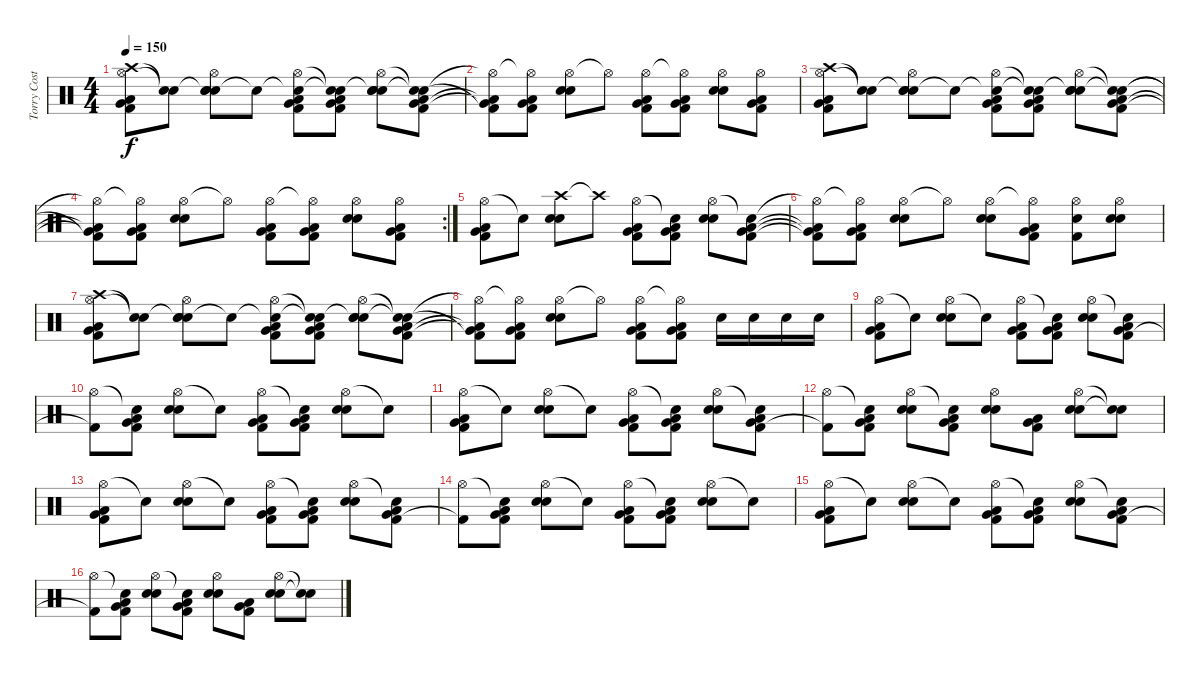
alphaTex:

\track ("Torry Costellano" "Torry Cost") {instrument percussion bank 127}
\staff {score}
\articulation defaults
\ts (4 4)
\tempo 150
\clef neutral
\ks c
("Crash high (hit)" "Hi-Hat (open)" "Kick (hit) 2" "Very Low Tom (hit)" "Low Tom (hit)").8{dy f} ("Snare (hit)"{t} "Snare (hit)"{t}).8 ("Snare (hit)"{t} "Hi-Hat (open)" "Electric Snare (hit)" "Snare (hit) 2").8 "Snare (hit)"{t}.8 ("Snare (hit)"{t} "Hi-Hat (open)" "Kick (hit) 2" "Very Low Tom (hit)" "Low Tom (hit)").8 ("Snare (hit)"{t} "Snare (hit)"{t} "Kick (hit) 2" "Very Low Tom (hit)" "Low Tom (hit)").8 ("Snare (hit)"{t} "Hi-Hat (open)" "Electric Snare (hit)" "Snare (hit) 2").8 ("Snare (hit)"{t} "Snare (hit)"{t} "Kick (hit) 2" "Very Low Tom (hit)" "Low Tom (hit)").8 |
("Hi-Hat (open)"{t} "Kick (hit) 2"{t} "Very Low Tom (hit)"{t} "Low Tom (hit)"{t}).8 ("Hi-Hat (open)"{t} "Low Tom (hit)" "Very Low Tom (hit)" "Kick (hit) 2").8 ("Hi-Hat (open)" "Electric Snare (hit)" "Snare (hit) 2").8 "Hi-Hat (open)"{t}.8 ("Hi-Hat (open)" "Low Tom (hit)" "Very Low Tom (hit)" "Kick (hit) 2").8 ("Hi-Hat (open)"{t} "Low Tom (hit)" "Very Low Tom (hit)" "Kick (hit) 2").8 ("Hi-Hat (open)" "Snare (hit) 2" "Electric Snare (hit)").8 ("Hi-Hat (open)" "Low Tom (hit)" "Very Low Tom (hit)" "Kick (hit) 2").8 |
("Crash high (hit)" "Hi-Hat (open)" "Kick (hit) 2" "Very Low Tom (hit)" "Low Tom (hit)").8 ("Snare (hit)"{t} "Snare (hit)"{t}).8 ("Snare (hit)"{t} "Hi-Hat (open)" "Electric Snare (hit)" "Snare (hit) 2").8 "Snare (hit)"{t}.8 ("Snare (hit)"{t} "Hi-Hat (open)" "Kick (hit) 2" "Very Low Tom (hit)" "Low Tom (hit)").8 ("Snare (hit)"{t} "Snare (hit)"{t} "Kick (hit) 2" "Very Low Tom (hit)" "Low Tom (hit)").8 ("Snare (hit)"{t} "Hi-Hat (open)" "Electric Snare (hit)" "Snare (hit) 2").8 ("Snare (hit)"{t} "Snare (hit)"{t} "Kick (hit) 2" "Very Low Tom (hit)" "Low Tom (hit)").8 |
\rc 2
("Hi-Hat (open)"{t} "Kick (hit) 2"{t} "Very Low Tom (hit)"{t} "Low Tom (hit)"{t}).8 ("Hi-Hat (open)"{t} "Low Tom (hit)" "Very Low Tom (hit)" "Kick (hit) 2").8 ("Hi-Hat (open)" "Electric Snare (hit)" "Snare (hit) 2").8 "Hi-Hat (open)"{t}.8 ("Hi-Hat (open)" "Low Tom (hit)" "Very Low Tom (hit)" "Kick (hit) 2").8 ("Hi-Hat (open)"{t} "Low Tom (hit)" "Very Low Tom (hit)" "Kick (hit) 2").8 ("Hi-Hat (open)" "Snare (hit) 2" "Electric Snare (hit)").8 ("Hi-Hat (open)" "Low Tom (hit)" "Very Low Tom (hit)" "Kick (hit) 2").8 |
("Hi-Hat (open)" "Kick (hit) 2" "Very Low Tom (hit)" "Low Tom (hit)").8 "Snare (hit)"{t}.8 ("Crash high (hit)" "Electric Snare (hit)" "Snare (hit) 2").8 "Crash high (hit)"{t}.8 ("Hi-Hat (open)" "Kick (hit) 2" "Very Low Tom (hit)" "Low Tom (hit)").8 ("Snare (hit)"{t} "Kick (hit) 2" "Very Low Tom (hit)" "Low Tom (hit)").8 ("Hi-Hat (open)" "Electric Snare (hit)" "Snare (hit) 2").8 ("Snare (hit)"{t} "Kick (hit) 2" "Very Low Tom (hit)" "Low Tom (hit)").8 |
("Hi-Hat (open)"{t} "Kick (hit) 2"{t} "Very Low Tom (hit)"{t} "Low Tom (hit)"{t}).8 ("Hi-Hat (open)"{t} "Low Tom (hit)" "Very Low Tom (hit)" "Kick (hit) 2").8 ("Hi-Hat (open)" "Electric Snare (hit)" "Snare (hit) 2").8 "Hi-Hat (open)"{t}.8 ("Hi-Hat (open)" "Snare (hit) 2" "Electric Snare (hit)").8 ("Hi-Hat (open)"{t} "Low Tom (hit)" "Very Low Tom (hit)" "Kick (hit) 2").8 ("Hi-Hat (open)" "Snare (hit) 2" "Kick (hit) 2").8 ("Hi-Hat (open)" "Snare (hit) 2" "Electric Snare (hit)").8 |
("Crash high (hit)" "Hi-Hat (open)" "Kick (hit) 2" "Very Low Tom (hit)" "Low Tom (hit)").8 ("Snare (hit)"{t} "Snare (hit)"{t}).8 ("Snare (hit)"{t} "Hi-Hat (open)" "Electric Snare (hit)" "Snare (hit) 2").8 "Snare (hit)"{t}.8 ("Snare (hit)"{t} "Hi-Hat (open)" "Kick (hit) 2" "Very Low Tom (hit)" "Low Tom (hit)").8 ("Snare (hit)"{t} "Snare (hit)"{t} "Kick (hit) 2" "Very Low Tom (hit)" "Low Tom (hit)").8 ("Snare (hit)"{t} "Hi-Hat (open)" "Electric Snare (hit)" "Snare (hit) 2").8 ("Snare (hit)"{t} "Snare (hit)"{t} "Kick (hit) 2" "Very Low Tom (hit)" "Low Tom (hit)").8 |
("Hi-Hat (open)"{t} "Kick (hit) 2"{t} "Very Low Tom (hit)"{t} "Low Tom (hit)"{t}).8 ("Hi-Hat (open)"{t} "Low Tom (hit)" "Very Low Tom (hit)" "Kick (hit) 2").8 ("Hi-Hat (open)" "Electric Snare (hit)" "Snare (hit) 2").8 "Hi-Hat (open)"{t}.8 ("Hi-Hat (open)" "Low Tom (hit)" "Very Low Tom (hit)" "Kick (hit) 2").8 ("Hi-Hat (open)"{t} "Low Tom (hit)" "Very Low Tom (hit)" "Kick (hit) 2").8 "Electric Snare (hit)".16 "Electric Snare (hit)".16 "Electric Snare (hit)".16 "Electric Snare (hit)".16 |
("Hi-Hat (open)" "Kick (hit) 2" "Very Low Tom (hit)" "Low Tom (hit)").8 "Snare (hit)"{t}.8 ("Hi-Hat (open)" "Electric Snare (hit)" "Snare (hit) 2").8 "Snare (hit)"{t}.8 ("Hi-Hat (open)" "Kick (hit) 2" "Very Low Tom (hit)" "Low Tom (hit)").8 ("Snare (hit)"{t} "Kick (hit) 2" "Very Low Tom (hit)" "Low Tom (hit)").8 ("Hi-Hat (open)" "Electric Snare (hit)" "Snare (hit) 2").8 ("Snare (hit)"{t} "Kick (hit) 2" "Very Low Tom (hit)" "Low Tom (hit)").8 |
("Hi-Hat (open)" "Kick (hit) 2"{t}).8 ("Snare (hit)"{t} "Kick (hit) 2" "Very Low Tom (hit)" "Low Tom (hit)").8 ("Hi-Hat (open)" "Electric Snare (hit)" "Snare (hit) 2").8 "Snare (hit)"{t}.8 ("Hi-Hat (open)" "Kick (hit) 2" "Very Low Tom (hit)" "Low Tom (hit)").8 ("Snare (hit)"{t} "Kick (hit) 2" "Very Low Tom (hit)" "Low Tom (hit)").8 ("Hi-Hat (open)" "Electric Snare (hit)" "Snare (hit) 2").8 "Snare (hit)"{t}.8 |
("Hi-Hat (open)" "Kick (hit) 2" "Very Low Tom (hit)" "Low Tom (hit)").8 "Snare (hit)"{t}.8 ("Hi-Hat (open)" "Electric Snare (hit)" "Snare (hit) 2").8 "Snare (hit)"{t}.8 ("Hi-Hat (open)" "Kick (hit) 2" "Very Low Tom (hit)" "Low Tom (hit)").8 ("Snare (hit)"{t} "Kick (hit) 2" "Very Low Tom (hit)" "Low Tom (hit)").8 ("Hi-Hat (open)" "Electric Snare (hit)" "Snare (hit) 2").8 ("Snare (hit)"{t} "Kick (hit) 2" "Very Low Tom (hit)" "Low Tom (hit)").8 |
("Hi-Hat (open)" "Kick (hit) 2"{t}).8 ("Snare (hit)"{t} "Kick (hit) 2" "Very Low Tom (hit)" "Low Tom (hit)").8 ("Hi-Hat (open)" "Electric Snare (hit)" "Snare (hit) 2").8 ("Snare (hit)"{t} "Kick (hit) 2" "Very Low Tom (hit)" "Low Tom (hit)").8 ("Hi-Hat (open)" "Electric Snare (hit)" "Snare (hit) 2").8 ("Kick (hit) 2" "Very Low Tom (hit)" "Low Tom (hit)").8 ("Hi-Hat (open)" "Electric Snare (hit)" "Snare (hit) 2").8 ("Snare (hit)"{t} "Snare (hit)"{t}).8 |
("Hi-Hat (open)" "Kick (hit) 2" "Very Low Tom (hit)" "Low Tom (hit)").8 "Snare (hit)"{t}.8 ("Hi-Hat (open)" "Electric Snare (hit)" "Snare (hit) 2").8 "Snare (hit)"{t}.8 ("Hi-Hat (open)" "Kick (hit) 2" "Very Low Tom (hit)" "Low Tom (hit)").8 ("Snare (hit)"{t} "Kick (hit) 2" "Very Low Tom (hit)" "Low Tom (hit)").8 ("Hi-Hat (open)" "Electric Snare (hit)" "Snare (hit) 2").8 ("Snare (hit)"{t} "Kick (hit) 2" "Very Low Tom (hit)" "Low Tom (hit)").8 |
("Hi-Hat (open)" "Kick (hit) 2"{t}).8 ("Snare (hit)"{t} "Kick (hit) 2" "Very Low Tom (hit)" "Low Tom (hit)").8 ("Hi-Hat (open)" "Electric Snare (hit)" "Snare (hit) 2").8 "Snare (hit)"{t}.8 ("Hi-Hat (open)" "Kick (hit) 2" "Very Low Tom (hit)" "Low Tom (hit)").8 ("Snare (hit)"{t} "Kick (hit) 2" "Very Low Tom (hit)" "Low Tom (hit)").8 ("Hi-Hat (open)" "Electric Snare (hit)" "Snare (hit) 2").8 "Snare (hit)"{t}.8 |
("Hi-Hat (open)" "Kick (hit) 2" "Very Low Tom (hit)" "Low Tom (hit)").8 "Snare (hit)"{t}.8 ("Hi-Hat (open)" "Electric Snare (hit)" "Snare (hit) 2").8 "Snare (hit)"{t}.8 ("Hi-Hat (open)" "Kick (hit) 2" "Very Low Tom (hit)" "Low Tom (hit)").8 ("Snare (hit)"{t} "Kick (hit) 2" "Very Low Tom (hit)" "Low Tom (hit)").8 ("Hi-Hat (open)" "Electric Snare (hit)" "Snare (hit) 2").8 ("Snare (hit)"{t} "Kick (hit) 2" "Very Low Tom (hit)" "Low Tom (hit)").8 |
("Hi-Hat (open)" "Kick (hit) 2"{t}).8 ("Snare (hit)"{t} "Kick (hit) 2" "Very Low Tom (hit)" "Low Tom (hit)").8 ("Hi-Hat (open)" "Electric Snare (hit)" "Snare (hit) 2").8 ("Snare (hit)"{t} "Kick (hit) 2" "Very Low Tom (hit)" "Low Tom (hit)").8 ("Hi-Hat (open)" "Electric Snare (hit)" "Snare (hit) 2").8 ("Kick (hit) 2" "Very Low Tom (hit)" "Low Tom (hit)").8 ("Hi-Hat (open)" "Electric Snare (hit)" "Snare (hit) 2").8 ("Snare (hit)"{t} "Snare (hit)"{t}).8
